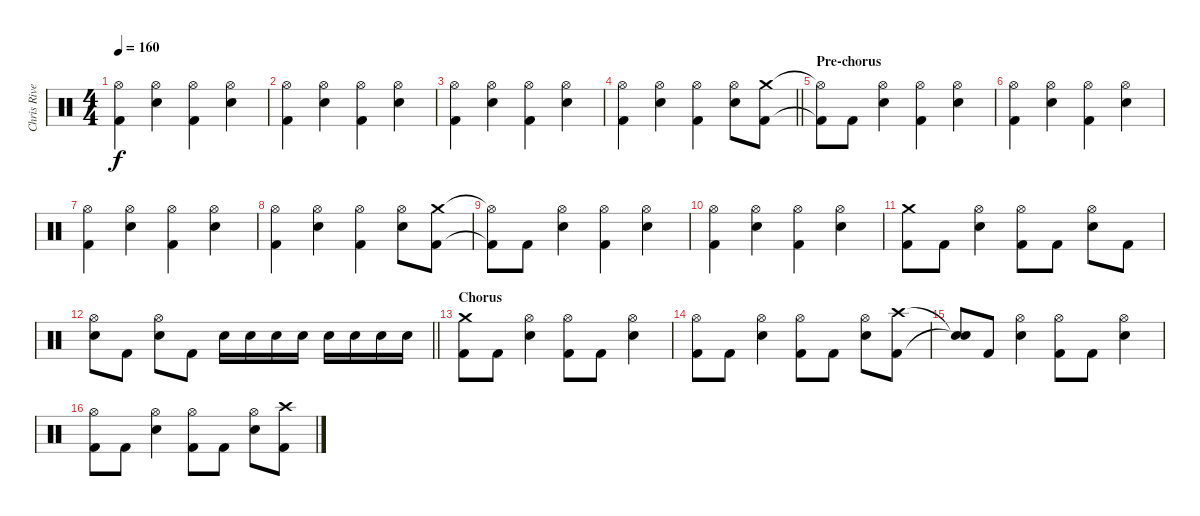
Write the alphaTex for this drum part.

\track ("Chris Rivers" "Chris Rive") {instrument percussion}
\staff {score}
\articulation defaults
\ts (4 4)
\tempo 160
\clef neutral
\ks c
("Hi-Hat (open)" "Kick (hit) 2").4{dy f} ("Hi-Hat (open)" "Electric Snare (hit)").4 ("Hi-Hat (open)" "Kick (hit) 2").4 ("Hi-Hat (open)" "Electric Snare (hit)").4 |
("Hi-Hat (open)" "Kick (hit) 2").4 ("Hi-Hat (open)" "Electric Snare (hit)").4 ("Hi-Hat (open)" "Kick (hit) 2").4 ("Hi-Hat (open)" "Electric Snare (hit)").4 |
("Hi-Hat (open)" "Kick (hit) 2").4 ("Hi-Hat (open)" "Electric Snare (hit)").4 ("Hi-Hat (open)" "Kick (hit) 2").4 ("Hi-Hat (open)" "Electric Snare (hit)").4 |
\barLineRight lightlight
("Hi-Hat (open)" "Kick (hit) 2").4 ("Hi-Hat (open)" "Electric Snare (hit)").4 ("Hi-Hat (open)" "Kick (hit) 2").4 ("Hi-Hat (open)" "Electric Snare (hit)").8 ("Crash medium (hit)" "Kick (hit) 2").8 |
\section ("" "Pre-chorus")
("Hi-Hat (open)"{t} "Kick (hit) 2"{t}).8 "Kick (hit) 2".8 ("Hi-Hat (open)" "Electric Snare (hit)").4 ("Hi-Hat (open)" "Kick (hit) 2").4 ("Hi-Hat (open)" "Electric Snare (hit)").4 |
("Hi-Hat (open)" "Kick (hit) 2").4 ("Hi-Hat (open)" "Electric Snare (hit)").4 ("Hi-Hat (open)" "Kick (hit) 2").4 ("Hi-Hat (open)" "Electric Snare (hit)").4 |
("Hi-Hat (open)" "Kick (hit) 2").4 ("Hi-Hat (open)" "Electric Snare (hit)").4 ("Hi-Hat (open)" "Kick (hit) 2").4 ("Hi-Hat (open)" "Electric Snare (hit)").4 |
("Hi-Hat (open)" "Kick (hit) 2").4 ("Hi-Hat (open)" "Electric Snare (hit)").4 ("Hi-Hat (open)" "Kick (hit) 2").4 ("Hi-Hat (open)" "Electric Snare (hit)").8 ("Crash medium (hit)" "Kick (hit) 2").8 |
("Hi-Hat (open)"{t} "Kick (hit) 2"{t}).8 "Kick (hit) 2".8 ("Hi-Hat (open)" "Electric Snare (hit)").4 ("Hi-Hat (open)" "Kick (hit) 2").4 ("Hi-Hat (open)" "Electric Snare (hit)").4 |
("Hi-Hat (open)" "Kick (hit) 2").4 ("Hi-Hat (open)" "Electric Snare (hit)").4 ("Hi-Hat (open)" "Kick (hit) 2").4 ("Hi-Hat (open)" "Electric Snare (hit)").4 |
("Crash medium (hit)" "Kick (hit) 2").8 "Kick (hit) 2".8 ("Hi-Hat (open)" "Electric Snare (hit)").4 ("Hi-Hat (open)" "Kick (hit) 2").8 "Kick (hit) 2".8 ("Hi-Hat (open)" "Electric Snare (hit)").8 "Kick (hit) 2".8 |
\barLineRight lightlight
("Hi-Hat (open)" "Electric Snare (hit)").8 "Kick (hit) 2".8 ("Hi-Hat (open)" "Electric Snare (hit)").8 "Kick (hit) 2".8 "Electric Snare (hit)".16 "Electric Snare (hit)".16 "Electric Snare (hit)".16 "Electric Snare (hit)".16 "Electric Snare (hit)".16 "Electric Snare (hit)".16 "Electric Snare (hit)".16 "Electric Snare (hit)".16 |
\section ("" "Chorus")
("Crash medium (hit)" "Kick (hit) 2").8 "Kick (hit) 2".8 ("Hi-Hat (open)" "Electric Snare (hit)").4 ("Hi-Hat (open)" "Kick (hit) 2").8 "Kick (hit) 2".8 ("Hi-Hat (open)" "Electric Snare (hit)").4 |
("Hi-Hat (open)" "Kick (hit) 2").8 "Kick (hit) 2".8 ("Hi-Hat (open)" "Electric Snare (hit)").4 ("Hi-Hat (open)" "Kick (hit) 2").8 "Kick (hit) 2".8 ("Hi-Hat (open)" "Electric Snare (hit)").8 ("Crash high (hit)" "Kick (hit) 2").8 |
("Snare (hit)"{t} "Snare (hit)"{t}).8 "Kick (hit) 2".8 ("Hi-Hat (open)" "Electric Snare (hit)").4 ("Hi-Hat (open)" "Kick (hit) 2").8 "Kick (hit) 2".8 ("Hi-Hat (open)" "Electric Snare (hit)").4 |
("Hi-Hat (open)" "Kick (hit) 2").8 "Kick (hit) 2".8 ("Hi-Hat (open)" "Electric Snare (hit)").4 ("Hi-Hat (open)" "Kick (hit) 2").8 "Kick (hit) 2".8 ("Hi-Hat (open)" "Electric Snare (hit)").8 ("Crash high (hit)" "Kick (hit) 2").8
